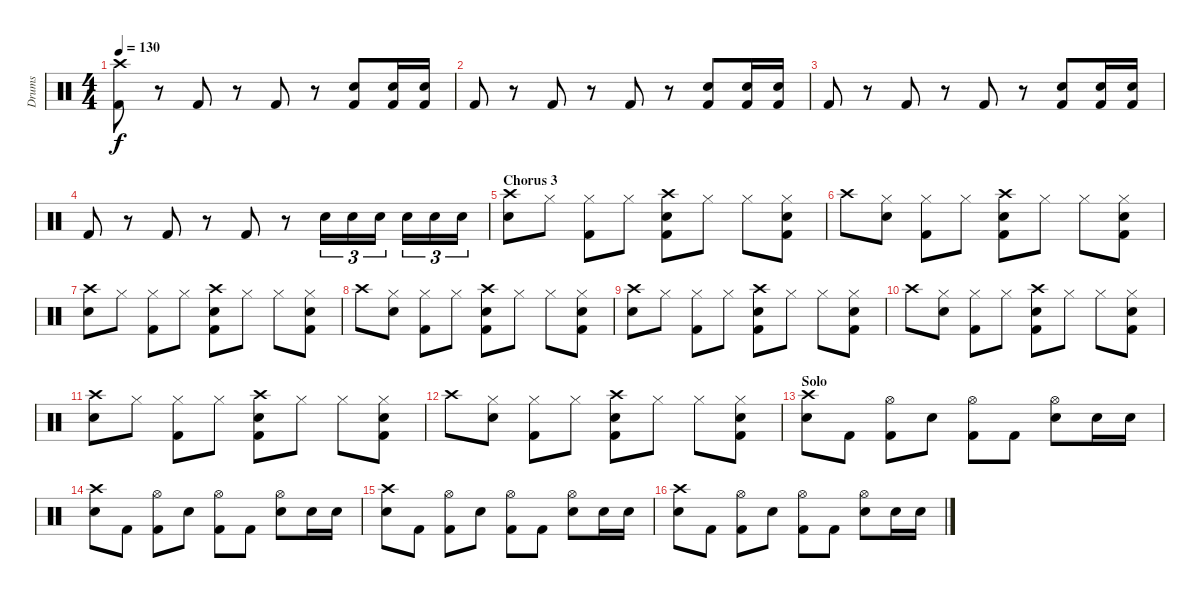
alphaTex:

\track ("Drums" "Drums") {instrument percussion}
\staff {score}
\articulation defaults
\ts (4 4)
\tempo 130
\clef neutral
\ks c
("Crash high (hit)" "Kick (hit) 2").8{dy f} r.8 "Kick (hit) 2".8 r.8 "Kick (hit) 2".8 r.8 ("Electric Snare (hit)" "Kick (hit) 2").8 ("Electric Snare (hit)" "Kick (hit) 2").16 ("Electric Snare (hit)" "Kick (hit) 2").16 |
"Kick (hit) 2".8 r.8 "Kick (hit) 2".8 r.8 "Kick (hit) 2".8 r.8 ("Electric Snare (hit)" "Kick (hit) 2").8 ("Electric Snare (hit)" "Kick (hit) 2").16 ("Electric Snare (hit)" "Kick (hit) 2").16 |
"Kick (hit) 2".8 r.8 "Kick (hit) 2".8 r.8 "Kick (hit) 2".8 r.8 ("Electric Snare (hit)" "Kick (hit) 2").8 ("Electric Snare (hit)" "Kick (hit) 2").16 ("Electric Snare (hit)" "Kick (hit) 2").16 |
"Kick (hit) 2".8 r.8 "Kick (hit) 2".8 r.8 "Kick (hit) 2".8 r.8 "Electric Snare (hit)".16{tu (3 2)} "Electric Snare (hit)".16{tu (3 2)} "Electric Snare (hit)".16{tu (3 2)} "Electric Snare (hit)".16{tu (3 2)} "Electric Snare (hit)".16{tu (3 2)} "Electric Snare (hit)".16{tu (3 2)} |
\section ("" "Chorus 3")
("Crash high (hit)" "Electric Snare (hit)").8 "Hi-Hat (closed)".8 ("Hi-Hat (closed)" "Kick (hit) 2").8 "Hi-Hat (closed)".8 ("Crash high (hit)" "Electric Snare (hit)" "Kick (hit) 2").8 "Hi-Hat (closed)".8 "Hi-Hat (closed)".8 ("Hi-Hat (closed)" "Electric Snare (hit)" "Kick (hit) 2").8 |
"Crash high (hit)".8 ("Hi-Hat (closed)" "Electric Snare (hit)").8 ("Hi-Hat (closed)" "Kick (hit) 2").8 "Hi-Hat (closed)".8 ("Crash high (hit)" "Electric Snare (hit)" "Kick (hit) 2").8 "Hi-Hat (closed)".8 "Hi-Hat (closed)".8 ("Hi-Hat (closed)" "Electric Snare (hit)" "Kick (hit) 2").8 |
("Crash high (hit)" "Electric Snare (hit)").8 "Hi-Hat (closed)".8 ("Hi-Hat (closed)" "Kick (hit) 2").8 "Hi-Hat (closed)".8 ("Crash high (hit)" "Electric Snare (hit)" "Kick (hit) 2").8 "Hi-Hat (closed)".8 "Hi-Hat (closed)".8 ("Hi-Hat (closed)" "Electric Snare (hit)" "Kick (hit) 2").8 |
"Crash high (hit)".8 ("Hi-Hat (closed)" "Electric Snare (hit)").8 ("Hi-Hat (closed)" "Kick (hit) 2").8 "Hi-Hat (closed)".8 ("Crash high (hit)" "Electric Snare (hit)" "Kick (hit) 2").8 "Hi-Hat (closed)".8 "Hi-Hat (closed)".8 ("Hi-Hat (closed)" "Electric Snare (hit)" "Kick (hit) 2").8 |
("Crash high (hit)" "Electric Snare (hit)").8 "Hi-Hat (closed)".8 ("Hi-Hat (closed)" "Kick (hit) 2").8 "Hi-Hat (closed)".8 ("Crash high (hit)" "Electric Snare (hit)" "Kick (hit) 2").8 "Hi-Hat (closed)".8 "Hi-Hat (closed)".8 ("Hi-Hat (closed)" "Electric Snare (hit)" "Kick (hit) 2").8 |
"Crash high (hit)".8 ("Hi-Hat (closed)" "Electric Snare (hit)").8 ("Hi-Hat (closed)" "Kick (hit) 2").8 "Hi-Hat (closed)".8 ("Crash high (hit)" "Electric Snare (hit)" "Kick (hit) 2").8 "Hi-Hat (closed)".8 "Hi-Hat (closed)".8 ("Hi-Hat (closed)" "Electric Snare (hit)" "Kick (hit) 2").8 |
("Crash high (hit)" "Electric Snare (hit)").8 "Hi-Hat (closed)".8 ("Hi-Hat (closed)" "Kick (hit) 2").8 "Hi-Hat (closed)".8 ("Crash high (hit)" "Electric Snare (hit)" "Kick (hit) 2").8 "Hi-Hat (closed)".8 "Hi-Hat (closed)".8 ("Hi-Hat (closed)" "Electric Snare (hit)" "Kick (hit) 2").8 |
"Crash high (hit)".8 ("Hi-Hat (closed)" "Electric Snare (hit)").8 ("Hi-Hat (closed)" "Kick (hit) 2").8 "Hi-Hat (closed)".8 ("Crash high (hit)" "Electric Snare (hit)" "Kick (hit) 2").8 "Hi-Hat (closed)".8 "Hi-Hat (closed)".8 ("Hi-Hat (closed)" "Electric Snare (hit)" "Kick (hit) 2").8 |
\section ("" "Solo")
("Crash high (hit)" "Electric Snare (hit)").8 "Kick (hit) 2".8 ("Hi-Hat (open)" "Kick (hit) 2").8 "Electric Snare (hit)".8 ("Hi-Hat (open)" "Kick (hit) 2").8 "Kick (hit) 2".8 ("Hi-Hat (open)" "Electric Snare (hit)").8 "Electric Snare (hit)".16 "Electric Snare (hit)".16 |
("Crash high (hit)" "Electric Snare (hit)").8 "Kick (hit) 2".8 ("Hi-Hat (open)" "Kick (hit) 2").8 "Electric Snare (hit)".8 ("Hi-Hat (open)" "Kick (hit) 2").8 "Kick (hit) 2".8 ("Hi-Hat (open)" "Electric Snare (hit)").8 "Electric Snare (hit)".16 "Electric Snare (hit)".16 |
("Crash high (hit)" "Electric Snare (hit)").8 "Kick (hit) 2".8 ("Hi-Hat (open)" "Kick (hit) 2").8 "Electric Snare (hit)".8 ("Hi-Hat (open)" "Kick (hit) 2").8 "Kick (hit) 2".8 ("Hi-Hat (open)" "Electric Snare (hit)").8 "Electric Snare (hit)".16 "Electric Snare (hit)".16 |
("Crash high (hit)" "Electric Snare (hit)").8 "Kick (hit) 2".8 ("Hi-Hat (open)" "Kick (hit) 2").8 "Electric Snare (hit)".8 ("Hi-Hat (open)" "Kick (hit) 2").8 "Kick (hit) 2".8 ("Hi-Hat (open)" "Electric Snare (hit)").8 "Electric Snare (hit)".16 "Electric Snare (hit)".16
